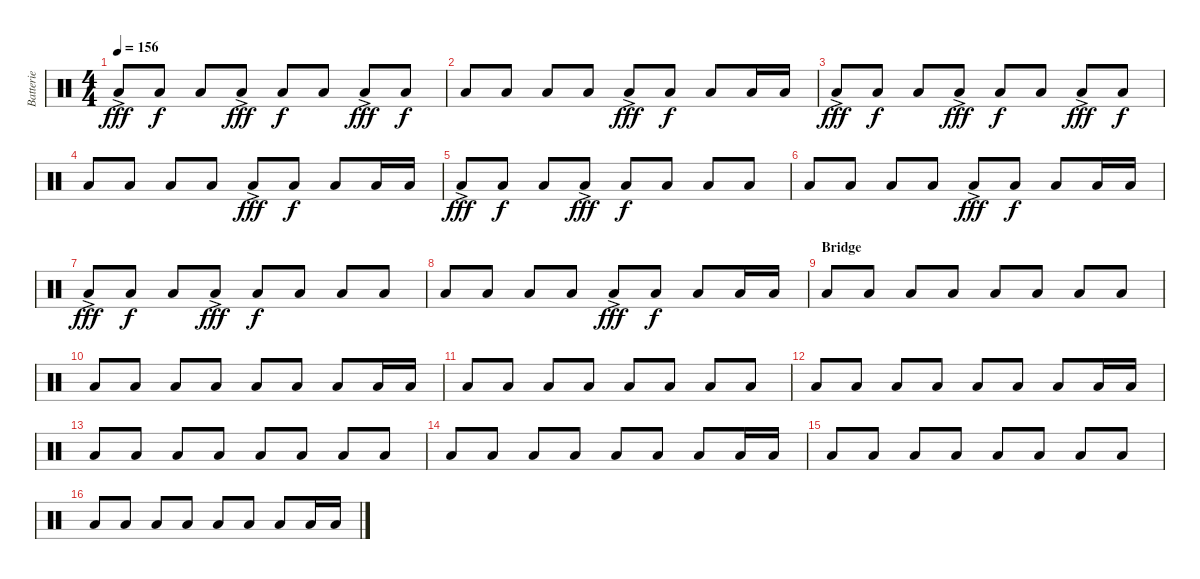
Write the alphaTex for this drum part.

\track ("Batterie" "Batterie") {instrument percussion}
\staff {score}
\articulation defaults
\ts (4 4)
\tempo 156
\clef neutral
\ks c "Low Floor Tom (hit)"{ac}.8{dy fff} "Low Floor Tom (hit)".8{dy f} "Low Floor Tom (hit)".8 "Low Floor Tom (hit)"{ac}.8{dy fff} "Low Floor Tom (hit)".8{dy f} "Low Floor Tom (hit)".8 "Low Floor Tom (hit)"{ac}.8{dy fff} "Low Floor Tom (hit)".8{dy f}
|
"Low Floor Tom (hit)".8 "Low Floor Tom (hit)".8 "Low Floor Tom (hit)".8 "Low Floor Tom (hit)".8 "Low Floor Tom (hit)"{ac}.8{dy fff} "Low Floor Tom (hit)".8{dy f} "Low Floor Tom (hit)".8 "Low Floor Tom (hit)".16 "Low Floor Tom (hit)".16 |
"Low Floor Tom (hit)"{ac}.8{dy fff} "Low Floor Tom (hit)".8{dy f} "Low Floor Tom (hit)".8 "Low Floor Tom (hit)"{ac}.8{dy fff} "Low Floor Tom (hit)".8{dy f} "Low Floor Tom (hit)".8 "Low Floor Tom (hit)"{ac}.8{dy fff} "Low Floor Tom (hit)".8{dy f} |
"Low Floor Tom (hit)".8 "Low Floor Tom (hit)".8 "Low Floor Tom (hit)".8 "Low Floor Tom (hit)".8 "Low Floor Tom (hit)"{ac}.8{dy fff} "Low Floor Tom (hit)".8{dy f} "Low Floor Tom (hit)".8 "Low Floor Tom (hit)".16 "Low Floor Tom (hit)".16 |
"Low Floor Tom (hit)"{ac}.8{dy fff} "Low Floor Tom (hit)".8{dy f} "Low Floor Tom (hit)".8 "Low Floor Tom (hit)"{ac}.8{dy fff} "Low Floor Tom (hit)".8{dy f} "Low Floor Tom (hit)".8 "Low Floor Tom (hit)".8 "Low Floor Tom (hit)".8 |
"Low Floor Tom (hit)".8 "Low Floor Tom (hit)".8 "Low Floor Tom (hit)".8 "Low Floor Tom (hit)".8 "Low Floor Tom (hit)"{ac}.8{dy fff} "Low Floor Tom (hit)".8{dy f} "Low Floor Tom (hit)".8 "Low Floor Tom (hit)".16 "Low Floor Tom (hit)".16 |
"Low Floor Tom (hit)"{ac}.8{dy fff} "Low Floor Tom (hit)".8{dy f} "Low Floor Tom (hit)".8 "Low Floor Tom (hit)"{ac}.8{dy fff} "Low Floor Tom (hit)".8{dy f} "Low Floor Tom (hit)".8 "Low Floor Tom (hit)".8 "Low Floor Tom (hit)".8 |
"Low Floor Tom (hit)".8 "Low Floor Tom (hit)".8 "Low Floor Tom (hit)".8 "Low Floor Tom (hit)".8 "Low Floor Tom (hit)"{ac}.8{dy fff} "Low Floor Tom (hit)".8{dy f} "Low Floor Tom (hit)".8 "Low Floor Tom (hit)".16 "Low Floor Tom (hit)".16 |
\section ("" "Bridge")
"Low Floor Tom (hit)".8 "Low Floor Tom (hit)".8 "Low Floor Tom (hit)".8 "Low Floor Tom (hit)".8 "Low Floor Tom (hit)".8 "Low Floor Tom (hit)".8 "Low Floor Tom (hit)".8 "Low Floor Tom (hit)".8 |
"Low Floor Tom (hit)".8 "Low Floor Tom (hit)".8 "Low Floor Tom (hit)".8 "Low Floor Tom (hit)".8 "Low Floor Tom (hit)".8 "Low Floor Tom (hit)".8 "Low Floor Tom (hit)".8 "Low Floor Tom (hit)".16 "Low Floor Tom (hit)".16 |
"Low Floor Tom (hit)".8 "Low Floor Tom (hit)".8 "Low Floor Tom (hit)".8 "Low Floor Tom (hit)".8 "Low Floor Tom (hit)".8 "Low Floor Tom (hit)".8 "Low Floor Tom (hit)".8 "Low Floor Tom (hit)".8 |
"Low Floor Tom (hit)".8 "Low Floor Tom (hit)".8 "Low Floor Tom (hit)".8 "Low Floor Tom (hit)".8 "Low Floor Tom (hit)".8 "Low Floor Tom (hit)".8 "Low Floor Tom (hit)".8 "Low Floor Tom (hit)".16 "Low Floor Tom (hit)".16 |
"Low Floor Tom (hit)".8 "Low Floor Tom (hit)".8 "Low Floor Tom (hit)".8 "Low Floor Tom (hit)".8 "Low Floor Tom (hit)".8 "Low Floor Tom (hit)".8 "Low Floor Tom (hit)".8 "Low Floor Tom (hit)".8 |
"Low Floor Tom (hit)".8 "Low Floor Tom (hit)".8 "Low Floor Tom (hit)".8 "Low Floor Tom (hit)".8 "Low Floor Tom (hit)".8 "Low Floor Tom (hit)".8 "Low Floor Tom (hit)".8 "Low Floor Tom (hit)".16 "Low Floor Tom (hit)".16 |
"Low Floor Tom (hit)".8 "Low Floor Tom (hit)".8 "Low Floor Tom (hit)".8 "Low Floor Tom (hit)".8 "Low Floor Tom (hit)".8 "Low Floor Tom (hit)".8 "Low Floor Tom (hit)".8 "Low Floor Tom (hit)".8 |
"Low Floor Tom (hit)".8 "Low Floor Tom (hit)".8 "Low Floor Tom (hit)".8 "Low Floor Tom (hit)".8 "Low Floor Tom (hit)".8 "Low Floor Tom (hit)".8 "Low Floor Tom (hit)".8 "Low Floor Tom (hit)".16 "Low Floor Tom (hit)".16
